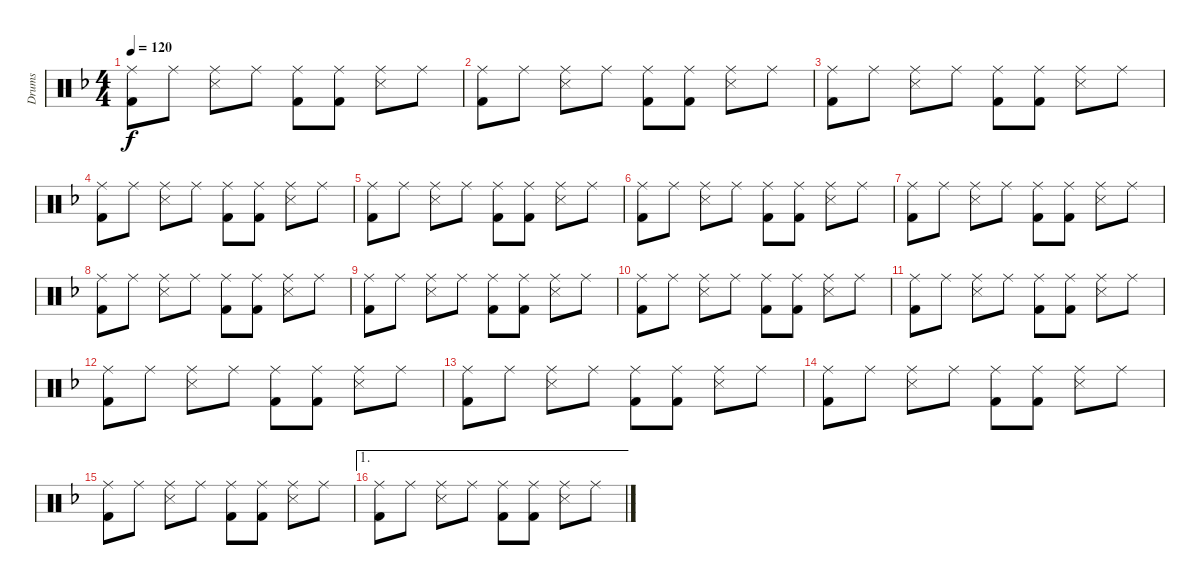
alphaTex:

\track ("Drums" "Drums") {instrument percussion}
\staff {score}
\articulation defaults
\ts (4 4)
\tempo 120
\clef neutral
\ks f
("Ride (middle)" "Kick (hit) 2").8{dy f} "Ride (middle)".8 ("Ride (middle)" "Snare (side stick) 3").8 "Ride (middle)".8 ("Ride (middle)" "Kick (hit) 2").8 ("Ride (middle)" "Kick (hit) 2").8 ("Ride (middle)" "Snare (side stick) 3").8 "Ride (middle)".8 |
("Ride (middle)" "Kick (hit) 2").8 "Ride (middle)".8 ("Ride (middle)" "Snare (side stick) 3").8 "Ride (middle)".8 ("Ride (middle)" "Kick (hit) 2").8 ("Ride (middle)" "Kick (hit) 2").8 ("Ride (middle)" "Snare (side stick) 3").8 "Ride (middle)".8 |
("Ride (middle)" "Kick (hit) 2").8 "Ride (middle)".8 ("Ride (middle)" "Snare (side stick) 3").8 "Ride (middle)".8 ("Ride (middle)" "Kick (hit) 2").8 ("Ride (middle)" "Kick (hit) 2").8 ("Ride (middle)" "Snare (side stick) 3").8 "Ride (middle)".8 |
("Ride (middle)" "Kick (hit) 2").8 "Ride (middle)".8 ("Ride (middle)" "Snare (side stick) 3").8 "Ride (middle)".8 ("Ride (middle)" "Kick (hit) 2").8 ("Ride (middle)" "Kick (hit) 2").8 ("Ride (middle)" "Snare (side stick) 3").8 "Ride (middle)".8 |
("Ride (middle)" "Kick (hit) 2").8 "Ride (middle)".8 ("Ride (middle)" "Snare (side stick) 3").8 "Ride (middle)".8 ("Ride (middle)" "Kick (hit) 2").8 ("Ride (middle)" "Kick (hit) 2").8 ("Ride (middle)" "Snare (side stick) 3").8 "Ride (middle)".8 |
("Ride (middle)" "Kick (hit) 2").8 "Ride (middle)".8 ("Ride (middle)" "Snare (side stick) 3").8 "Ride (middle)".8 ("Ride (middle)" "Kick (hit) 2").8 ("Ride (middle)" "Kick (hit) 2").8 ("Ride (middle)" "Snare (side stick) 3").8 "Ride (middle)".8 |
("Ride (middle)" "Kick (hit) 2").8 "Ride (middle)".8 ("Ride (middle)" "Snare (side stick) 3").8 "Ride (middle)".8 ("Ride (middle)" "Kick (hit) 2").8 ("Ride (middle)" "Kick (hit) 2").8 ("Ride (middle)" "Snare (side stick) 3").8 "Ride (middle)".8 |
("Ride (middle)" "Kick (hit) 2").8 "Ride (middle)".8 ("Ride (middle)" "Snare (side stick) 3").8 "Ride (middle)".8 ("Ride (middle)" "Kick (hit) 2").8 ("Ride (middle)" "Kick (hit) 2").8 ("Ride (middle)" "Snare (side stick) 3").8 "Ride (middle)".8 |
("Ride (middle)" "Kick (hit) 2").8 "Ride (middle)".8 ("Ride (middle)" "Snare (side stick) 3").8 "Ride (middle)".8 ("Ride (middle)" "Kick (hit) 2").8 ("Ride (middle)" "Kick (hit) 2").8 ("Ride (middle)" "Snare (side stick) 3").8 "Ride (middle)".8 |
("Ride (middle)" "Kick (hit) 2").8 "Ride (middle)".8 ("Ride (middle)" "Snare (side stick) 3").8 "Ride (middle)".8 ("Ride (middle)" "Kick (hit) 2").8 ("Ride (middle)" "Kick (hit) 2").8 ("Ride (middle)" "Snare (side stick) 3").8 "Ride (middle)".8 |
("Ride (middle)" "Kick (hit) 2").8 "Ride (middle)".8 ("Ride (middle)" "Snare (side stick) 3").8 "Ride (middle)".8 ("Ride (middle)" "Kick (hit) 2").8 ("Ride (middle)" "Kick (hit) 2").8 ("Ride (middle)" "Snare (side stick) 3").8 "Ride (middle)".8 |
("Ride (middle)" "Kick (hit) 2").8 "Ride (middle)".8 ("Ride (middle)" "Snare (side stick) 3").8 "Ride (middle)".8 ("Ride (middle)" "Kick (hit) 2").8 ("Ride (middle)" "Kick (hit) 2").8 ("Ride (middle)" "Snare (side stick) 3").8 "Ride (middle)".8 |
("Ride (middle)" "Kick (hit) 2").8 "Ride (middle)".8 ("Ride (middle)" "Snare (side stick) 3").8 "Ride (middle)".8 ("Ride (middle)" "Kick (hit) 2").8 ("Ride (middle)" "Kick (hit) 2").8 ("Ride (middle)" "Snare (side stick) 3").8 "Ride (middle)".8 |
("Ride (middle)" "Kick (hit) 2").8 "Ride (middle)".8 ("Ride (middle)" "Snare (side stick) 3").8 "Ride (middle)".8 ("Ride (middle)" "Kick (hit) 2").8 ("Ride (middle)" "Kick (hit) 2").8 ("Ride (middle)" "Snare (side stick) 3").8 "Ride (middle)".8 |
("Ride (middle)" "Kick (hit) 2").8 "Ride (middle)".8 ("Ride (middle)" "Snare (side stick) 3").8 "Ride (middle)".8 ("Ride (middle)" "Kick (hit) 2").8 ("Ride (middle)" "Kick (hit) 2").8 ("Ride (middle)" "Snare (side stick) 3").8 "Ride (middle)".8 |
\ae 1
("Ride (middle)" "Kick (hit) 2").8 "Ride (middle)".8 ("Ride (middle)" "Snare (side stick) 3").8 "Ride (middle)".8 ("Ride (middle)" "Kick (hit) 2").8 ("Ride (middle)" "Kick (hit) 2").8 ("Ride (middle)" "Snare (side stick) 3").8 "Ride (middle)".8
